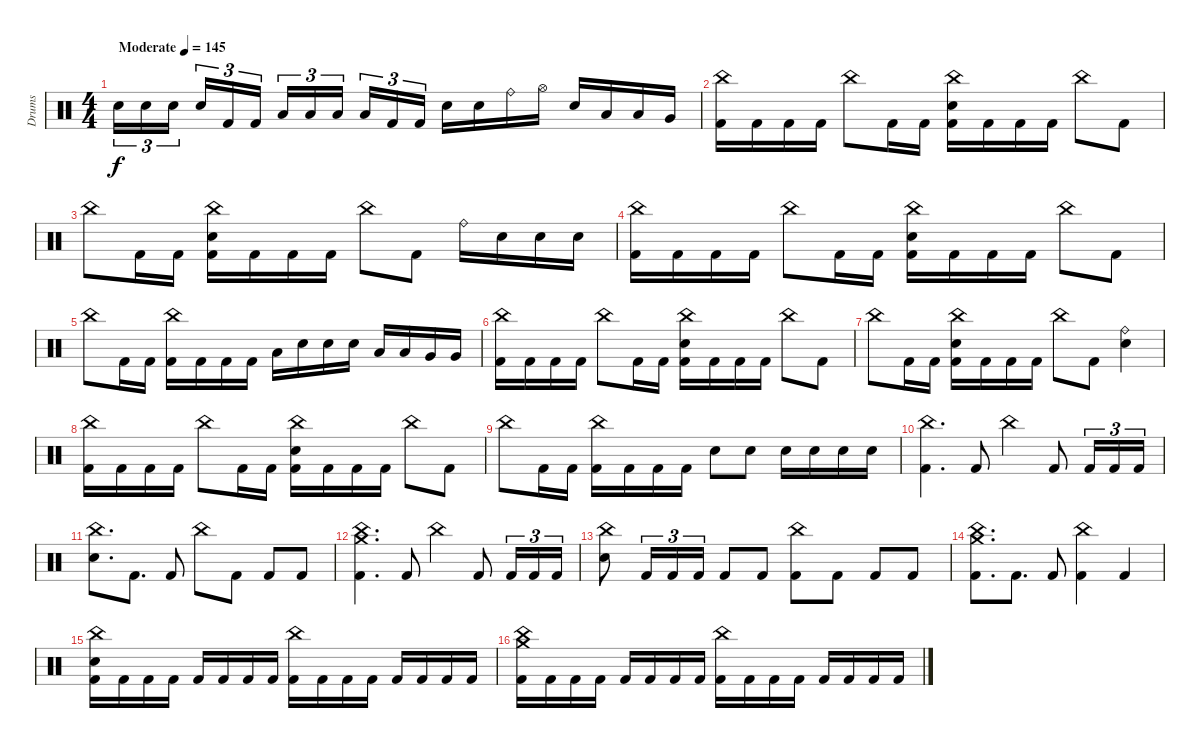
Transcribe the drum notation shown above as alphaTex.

\track ("Drums" "Drums") {instrument percussion bank 150}
\staff {score}
\articulation defaults
\ts (4 4)
\tempo (145 "Moderate")
\clef neutral
\ks c "Electric Snare (hit)".16{tu (3 2) dy f} "Electric Snare (hit)".16{tu (3 2)} "Electric Snare (hit)".16{tu (3 2) beam splitsecondary} "Electric Snare (hit)".16{tu (3 2)} "Kick (hit) 2".16{tu (3 2)} "Kick (hit) 2".16{tu (3 2)} "Low Tom (hit)".16{tu (3 2)} "Low Tom (hit)".16{tu (3 2)} "Low Tom (hit)".16{tu (3 2) beam splitsecondary} "Low Tom (hit)".16{tu (3 2)} "Kick (hit) 2".16{tu (3 2)} "Kick (hit) 2".16{tu (3 2)} "Electric Snare (hit)".16 "Electric Snare (hit)".16 "Ride (bell)".16 "Hi-Hat (open)".16 "Electric Snare (hit)".16 "Low Tom (hit)".16 "Low Tom (hit)".16 "Very Low Tom (hit)".16
|
("China (hit)" "Kick (hit) 2").16 "Kick (hit) 2".16 "Kick (hit) 2".16 "Kick (hit) 2".16 "China (hit)".8 "Kick (hit) 2".16 "Kick (hit) 2".16 ("China (hit)" "Electric Snare (hit)" "Kick (hit) 2").16 "Kick (hit) 2".16 "Kick (hit) 2".16 "Kick (hit) 2".16 "China (hit)".8 "Kick (hit) 2".8 |
"China (hit)".8 "Kick (hit) 2".16 "Kick (hit) 2".16 ("China (hit)" "Electric Snare (hit)" "Kick (hit) 2").16 "Kick (hit) 2".16 "Kick (hit) 2".16 "Kick (hit) 2".16 "China (hit)".8 "Kick (hit) 2".8 "Ride (bell)".16 "Electric Snare (hit)".16 "Electric Snare (hit)".16 "Electric Snare (hit)".16 |
("China (hit)" "Kick (hit) 2").16 "Kick (hit) 2".16 "Kick (hit) 2".16 "Kick (hit) 2".16 "China (hit)".8 "Kick (hit) 2".16 "Kick (hit) 2".16 ("China (hit)" "Electric Snare (hit)" "Kick (hit) 2").16 "Kick (hit) 2".16 "Kick (hit) 2".16 "Kick (hit) 2".16 "China (hit)".8 "Kick (hit) 2".8 |
"China (hit)".8 "Kick (hit) 2".16 "Kick (hit) 2".16 ("China (hit)" "Kick (hit) 2").16 "Kick (hit) 2".16 "Kick (hit) 2".16 "Kick (hit) 2".16 "Low Tom (hit)".16 "Electric Snare (hit)".16 "Electric Snare (hit)".16 "Electric Snare (hit)".16 "Low Tom (hit)".16 "Low Tom (hit)".16 "Very Low Tom (hit)".16 "Very Low Tom (hit)".16 |
("China (hit)" "Kick (hit) 2").16 "Kick (hit) 2".16 "Kick (hit) 2".16 "Kick (hit) 2".16 "China (hit)".8 "Kick (hit) 2".16 "Kick (hit) 2".16 ("China (hit)" "Electric Snare (hit)" "Kick (hit) 2").16 "Kick (hit) 2".16 "Kick (hit) 2".16 "Kick (hit) 2".16 "China (hit)".8 "Kick (hit) 2".8 |
"China (hit)".8 "Kick (hit) 2".16 "Kick (hit) 2".16 ("China (hit)" "Electric Snare (hit)" "Kick (hit) 2").16 "Kick (hit) 2".16 "Kick (hit) 2".16 "Kick (hit) 2".16 "China (hit)".8 "Kick (hit) 2".8 ("Ride (bell)" "Electric Snare (hit)").4 |
("China (hit)" "Kick (hit) 2").16 "Kick (hit) 2".16 "Kick (hit) 2".16 "Kick (hit) 2".16 "China (hit)".8 "Kick (hit) 2".16 "Kick (hit) 2".16 ("China (hit)" "Electric Snare (hit)" "Kick (hit) 2").16 "Kick (hit) 2".16 "Kick (hit) 2".16 "Kick (hit) 2".16 "China (hit)".8 "Kick (hit) 2".8 |
"China (hit)".8 "Kick (hit) 2".16 "Kick (hit) 2".16 ("China (hit)" "Kick (hit) 2").16 "Kick (hit) 2".16 "Kick (hit) 2".16 "Kick (hit) 2".16 "Electric Snare (hit)".8 "Electric Snare (hit)".8 "Electric Snare (hit)".16 "Electric Snare (hit)".16 "Electric Snare (hit)".16 "Electric Snare (hit)".16 |
("China (hit)" "Kick (hit) 2").4{d} "Kick (hit) 2".8 "China (hit)".4 "Kick (hit) 2".8 "Kick (hit) 2".16{tu (3 2)} "Kick (hit) 2".16{tu (3 2)} "Kick (hit) 2".16{tu (3 2)} |
("China (hit)" "Electric Snare (hit)").8{d} "Kick (hit) 2".8{d} "Kick (hit) 2".8 "China (hit)".8 "Kick (hit) 2".8 "Kick (hit) 2".8 "Kick (hit) 2".8 |
("Crash medium (hit)" "China (hit)" "Kick (hit) 2").4{d} "Kick (hit) 2".8 "China (hit)".4 "Kick (hit) 2".8 "Kick (hit) 2".16{tu (3 2)} "Kick (hit) 2".16{tu (3 2)} "Kick (hit) 2".16{tu (3 2)} |
("China (hit)" "Electric Snare (hit)").8 "Kick (hit) 2".16{tu (3 2)} "Kick (hit) 2".16{tu (3 2)} "Kick (hit) 2".16{tu (3 2)} "Kick (hit) 2".8 "Kick (hit) 2".8 ("China (hit)" "Kick (hit) 2").8 "Kick (hit) 2".8 "Kick (hit) 2".8 "Kick (hit) 2".8 |
("Crash medium (hit)" "China (hit)" "Kick (hit) 2").8{d} "Kick (hit) 2".8{d} "Kick (hit) 2".8 ("China (hit)" "Kick (hit) 2").4 "Kick (hit) 2".4 |
("China (hit)" "Electric Snare (hit)" "Kick (hit) 2").16 "Kick (hit) 2".16 "Kick (hit) 2".16 "Kick (hit) 2".16 "Kick (hit) 2".16 "Kick (hit) 2".16 "Kick (hit) 2".16 "Kick (hit) 2".16 ("China (hit)" "Kick (hit) 2").16 "Kick (hit) 2".16 "Kick (hit) 2".16 "Kick (hit) 2".16 "Kick (hit) 2".16 "Kick (hit) 2".16 "Kick (hit) 2".16 "Kick (hit) 2".16 |
("Crash medium (hit)" "China (hit)" "Kick (hit) 2").16 "Kick (hit) 2".16 "Kick (hit) 2".16 "Kick (hit) 2".16 "Kick (hit) 2".16 "Kick (hit) 2".16 "Kick (hit) 2".16 "Kick (hit) 2".16 ("China (hit)" "Kick (hit) 2").16 "Kick (hit) 2".16 "Kick (hit) 2".16 "Kick (hit) 2".16 "Kick (hit) 2".16 "Kick (hit) 2".16 "Kick (hit) 2".16 "Kick (hit) 2".16
